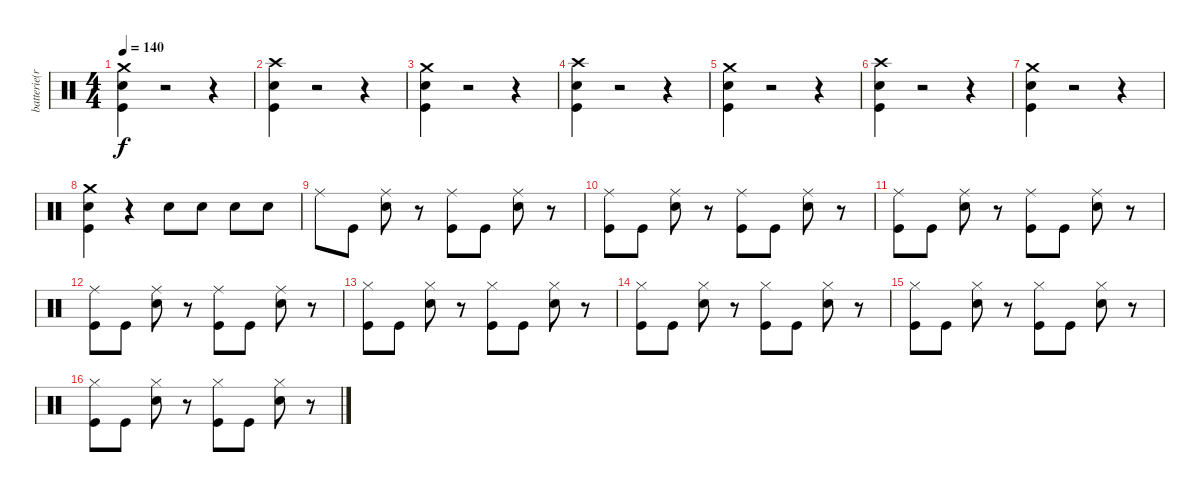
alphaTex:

\track ("batterie(ricky)" "batterie(r") {instrument percussion}
\staff {score}
\articulation defaults
\ts (4 4)
\tempo 140
\clef neutral
\ks c
("Crash medium (hit)" "Snare (hit) 2" "Kick (hit)").4{dy f} r.2 r.4 |
("Crash high (hit)" "Snare (hit) 2" "Kick (hit)").4 r.2 r.4 |
("Crash medium (hit)" "Snare (hit) 2" "Kick (hit)").4 r.2 r.4 |
("Crash high (hit)" "Snare (hit) 2" "Kick (hit)").4 r.2 r.4 |
("Crash medium (hit)" "Snare (hit) 2" "Kick (hit)").4 r.2 r.4 |
("Crash high (hit)" "Snare (hit) 2" "Kick (hit)").4 r.2 r.4 |
("Crash medium (hit)" "Snare (hit) 2" "Kick (hit)").4 r.2 r.4 |
("Crash medium (hit)" "Snare (hit) 2" "Kick (hit)").4 r.4 "Snare (hit) 2".8 "Snare (hit) 2".8 "Snare (hit) 2".8 "Snare (hit) 2".8 |
"Ride (middle)".8 "Kick (hit)".8 ("Ride (middle)" "Snare (hit) 2").8 r.8 ("Ride (middle)" "Kick (hit)").8 "Kick (hit)".8 ("Ride (middle)" "Snare (hit) 2").8 r.8 |
("Ride (middle)" "Kick (hit)").8 "Kick (hit)".8 ("Ride (middle)" "Snare (hit) 2").8 r.8 ("Ride (middle)" "Kick (hit)").8 "Kick (hit)".8 ("Ride (middle)" "Snare (hit) 2").8 r.8 |
("Ride (middle)" "Kick (hit)").8 "Kick (hit)".8 ("Ride (middle)" "Snare (hit) 2").8 r.8 ("Ride (middle)" "Kick (hit)").8 "Kick (hit)".8 ("Ride (middle)" "Snare (hit) 2").8 r.8 |
("Ride (middle)" "Kick (hit)").8 "Kick (hit)".8 ("Ride (middle)" "Snare (hit) 2").8 r.8 ("Ride (middle)" "Kick (hit)").8 "Kick (hit)".8 ("Ride (middle)" "Snare (hit) 2").8 r.8 |
("Hi-Hat (closed)" "Kick (hit)").8 "Kick (hit)".8 ("Hi-Hat (closed)" "Snare (hit) 2").8 r.8 ("Hi-Hat (closed)" "Kick (hit)").8 "Kick (hit)".8 ("Hi-Hat (closed)" "Snare (hit) 2").8 r.8 |
("Hi-Hat (closed)" "Kick (hit)").8 "Kick (hit)".8 ("Hi-Hat (closed)" "Snare (hit) 2").8 r.8 ("Hi-Hat (closed)" "Kick (hit)").8 "Kick (hit)".8 ("Hi-Hat (closed)" "Snare (hit) 2").8 r.8 |
("Hi-Hat (closed)" "Kick (hit)").8 "Kick (hit)".8 ("Hi-Hat (closed)" "Snare (hit) 2").8 r.8 ("Hi-Hat (closed)" "Kick (hit)").8 "Kick (hit)".8 ("Hi-Hat (closed)" "Snare (hit) 2").8 r.8 |
("Hi-Hat (closed)" "Kick (hit)").8 "Kick (hit)".8 ("Hi-Hat (closed)" "Snare (hit) 2").8 r.8 ("Hi-Hat (closed)" "Kick (hit)").8 "Kick (hit)".8 ("Hi-Hat (closed)" "Snare (hit) 2").8 r.8
